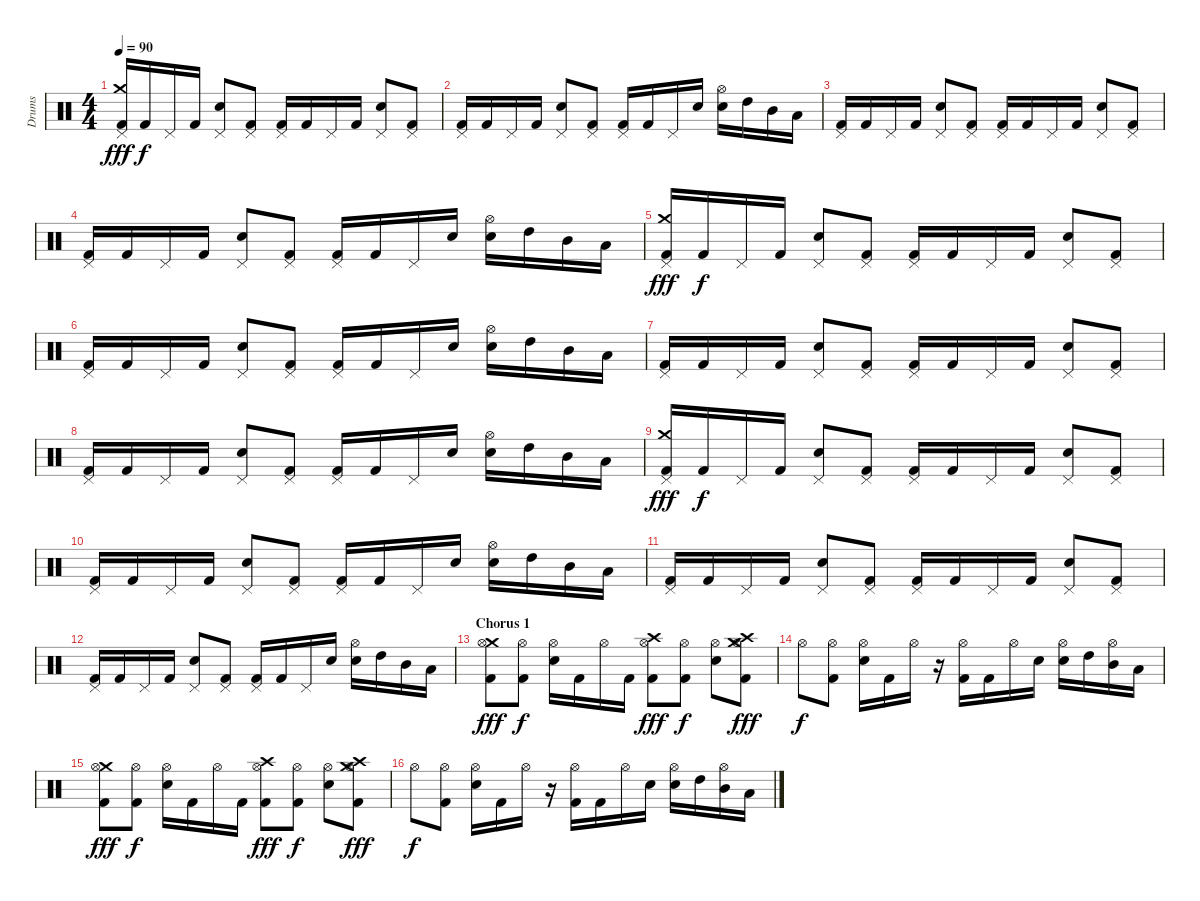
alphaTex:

\track ("Drums" "Drums") {instrument percussion}
\staff {score}
\articulation defaults
\ts (4 4)
\tempo 90
\clef neutral
\ks c
("Kick (hit) 2" "Crash medium (hit)" "Pedal Hi-Hat (hit)").16{dy fff} "Kick (hit) 2".16{dy f} "Pedal Hi-Hat (hit)".16 "Kick (hit) 2".16 ("Snare (hit) 2" "Pedal Hi-Hat (hit)").8 ("Kick (hit) 2" "Pedal Hi-Hat (hit)").8 ("Kick (hit) 2" "Pedal Hi-Hat (hit)").16 "Kick (hit) 2".16 "Pedal Hi-Hat (hit)".16 "Kick (hit) 2".16 ("Snare (hit) 2" "Pedal Hi-Hat (hit)").8 ("Kick (hit) 2" "Pedal Hi-Hat (hit)").8 |
("Kick (hit) 2" "Pedal Hi-Hat (hit)").16 "Kick (hit) 2".16 "Pedal Hi-Hat (hit)".16 "Kick (hit) 2".16 ("Snare (hit) 2" "Pedal Hi-Hat (hit)").8 ("Kick (hit) 2" "Pedal Hi-Hat (hit)").8 ("Kick (hit) 2" "Pedal Hi-Hat (hit)").16 "Kick (hit) 2".16 "Pedal Hi-Hat (hit)".16 "Snare (hit) 2".16 ("Snare (hit) 2" "Hi-Hat (open)").16 "High Tom (hit)".16 "Mid Tom (hit)".16 "Low Tom (hit)".16 |
("Kick (hit) 2" "Pedal Hi-Hat (hit)").16 "Kick (hit) 2".16 "Pedal Hi-Hat (hit)".16 "Kick (hit) 2".16 ("Snare (hit) 2" "Pedal Hi-Hat (hit)").8 ("Kick (hit) 2" "Pedal Hi-Hat (hit)").8 ("Kick (hit) 2" "Pedal Hi-Hat (hit)").16 "Kick (hit) 2".16 "Pedal Hi-Hat (hit)".16 "Kick (hit) 2".16 ("Snare (hit) 2" "Pedal Hi-Hat (hit)").8 ("Kick (hit) 2" "Pedal Hi-Hat (hit)").8 |
("Kick (hit) 2" "Pedal Hi-Hat (hit)").16 "Kick (hit) 2".16 "Pedal Hi-Hat (hit)".16 "Kick (hit) 2".16 ("Snare (hit) 2" "Pedal Hi-Hat (hit)").8 ("Kick (hit) 2" "Pedal Hi-Hat (hit)").8 ("Kick (hit) 2" "Pedal Hi-Hat (hit)").16 "Kick (hit) 2".16 "Pedal Hi-Hat (hit)".16 "Snare (hit) 2".16 ("Snare (hit) 2" "Hi-Hat (open)").16 "High Tom (hit)".16 "Mid Tom (hit)".16 "Low Tom (hit)".16 |
("Kick (hit) 2" "Crash medium (hit)" "Pedal Hi-Hat (hit)").16{dy fff} "Kick (hit) 2".16{dy f} "Pedal Hi-Hat (hit)".16 "Kick (hit) 2".16 ("Snare (hit) 2" "Pedal Hi-Hat (hit)").8 ("Kick (hit) 2" "Pedal Hi-Hat (hit)").8 ("Kick (hit) 2" "Pedal Hi-Hat (hit)").16 "Kick (hit) 2".16 "Pedal Hi-Hat (hit)".16 "Kick (hit) 2".16 ("Snare (hit) 2" "Pedal Hi-Hat (hit)").8 ("Kick (hit) 2" "Pedal Hi-Hat (hit)").8 |
("Kick (hit) 2" "Pedal Hi-Hat (hit)").16 "Kick (hit) 2".16 "Pedal Hi-Hat (hit)".16 "Kick (hit) 2".16 ("Snare (hit) 2" "Pedal Hi-Hat (hit)").8 ("Kick (hit) 2" "Pedal Hi-Hat (hit)").8 ("Kick (hit) 2" "Pedal Hi-Hat (hit)").16 "Kick (hit) 2".16 "Pedal Hi-Hat (hit)".16 "Snare (hit) 2".16 ("Snare (hit) 2" "Hi-Hat (open)").16 "High Tom (hit)".16 "Mid Tom (hit)".16 "Low Tom (hit)".16 |
("Kick (hit) 2" "Pedal Hi-Hat (hit)").16 "Kick (hit) 2".16 "Pedal Hi-Hat (hit)".16 "Kick (hit) 2".16 ("Snare (hit) 2" "Pedal Hi-Hat (hit)").8 ("Kick (hit) 2" "Pedal Hi-Hat (hit)").8 ("Kick (hit) 2" "Pedal Hi-Hat (hit)").16 "Kick (hit) 2".16 "Pedal Hi-Hat (hit)".16 "Kick (hit) 2".16 ("Snare (hit) 2" "Pedal Hi-Hat (hit)").8 ("Kick (hit) 2" "Pedal Hi-Hat (hit)").8 |
("Kick (hit) 2" "Pedal Hi-Hat (hit)").16 "Kick (hit) 2".16 "Pedal Hi-Hat (hit)".16 "Kick (hit) 2".16 ("Snare (hit) 2" "Pedal Hi-Hat (hit)").8 ("Kick (hit) 2" "Pedal Hi-Hat (hit)").8 ("Kick (hit) 2" "Pedal Hi-Hat (hit)").16 "Kick (hit) 2".16 "Pedal Hi-Hat (hit)".16 "Snare (hit) 2".16 ("Snare (hit) 2" "Hi-Hat (open)").16 "High Tom (hit)".16 "Mid Tom (hit)".16 "Low Tom (hit)".16 |
("Kick (hit) 2" "Crash medium (hit)" "Pedal Hi-Hat (hit)").16{dy fff} "Kick (hit) 2".16{dy f} "Pedal Hi-Hat (hit)".16 "Kick (hit) 2".16 ("Snare (hit) 2" "Pedal Hi-Hat (hit)").8 ("Kick (hit) 2" "Pedal Hi-Hat (hit)").8 ("Kick (hit) 2" "Pedal Hi-Hat (hit)").16 "Kick (hit) 2".16 "Pedal Hi-Hat (hit)".16 "Kick (hit) 2".16 ("Snare (hit) 2" "Pedal Hi-Hat (hit)").8 ("Kick (hit) 2" "Pedal Hi-Hat (hit)").8 |
("Kick (hit) 2" "Pedal Hi-Hat (hit)").16 "Kick (hit) 2".16 "Pedal Hi-Hat (hit)".16 "Kick (hit) 2".16 ("Snare (hit) 2" "Pedal Hi-Hat (hit)").8 ("Kick (hit) 2" "Pedal Hi-Hat (hit)").8 ("Kick (hit) 2" "Pedal Hi-Hat (hit)").16 "Kick (hit) 2".16 "Pedal Hi-Hat (hit)".16 "Snare (hit) 2".16 ("Snare (hit) 2" "Hi-Hat (open)").16 "High Tom (hit)".16 "Mid Tom (hit)".16 "Low Tom (hit)".16 |
("Kick (hit) 2" "Pedal Hi-Hat (hit)").16 "Kick (hit) 2".16 "Pedal Hi-Hat (hit)".16 "Kick (hit) 2".16 ("Snare (hit) 2" "Pedal Hi-Hat (hit)").8 ("Kick (hit) 2" "Pedal Hi-Hat (hit)").8 ("Kick (hit) 2" "Pedal Hi-Hat (hit)").16 "Kick (hit) 2".16 "Pedal Hi-Hat (hit)".16 "Kick (hit) 2".16 ("Snare (hit) 2" "Pedal Hi-Hat (hit)").8 ("Kick (hit) 2" "Pedal Hi-Hat (hit)").8 |
("Kick (hit) 2" "Pedal Hi-Hat (hit)").16 "Kick (hit) 2".16 "Pedal Hi-Hat (hit)".16 "Kick (hit) 2".16 ("Snare (hit) 2" "Pedal Hi-Hat (hit)").8 ("Kick (hit) 2" "Pedal Hi-Hat (hit)").8 ("Kick (hit) 2" "Pedal Hi-Hat (hit)").16 "Kick (hit) 2".16 "Pedal Hi-Hat (hit)".16 "Snare (hit) 2".16 ("Snare (hit) 2" "Hi-Hat (open)").16 "High Tom (hit)".16 "Mid Tom (hit)".16 "Low Tom (hit)".16 |
\section ("" "Chorus 1")
("Kick (hit) 2" "Crash medium (hit)" "Hi-Hat (open)").8{dy fff} ("Kick (hit) 2" "Hi-Hat (open)").8{dy f} ("Snare (hit) 2" "Hi-Hat (open)").16 "Kick (hit) 2".16 "Hi-Hat (open)".16 "Kick (hit) 2".16 ("Kick (hit) 2" "Crash high (hit)" "Hi-Hat (open)").8{dy fff} ("Kick (hit) 2" "Hi-Hat (open)").8{dy f} ("Snare (hit) 2" "Hi-Hat (open)").8 ("Kick (hit) 2" "Crash medium (hit)" "Crash high (hit)" "Hi-Hat (open)").8{dy fff} |
"Hi-Hat (open)".8{dy f} ("Kick (hit) 2" "Hi-Hat (open)").8 ("Snare (hit) 2" "Hi-Hat (open)").16 "Kick (hit) 2".16 "Hi-Hat (open)".16 r.16 ("Kick (hit) 2" "Hi-Hat (open)").16 "Kick (hit) 2".16 "Hi-Hat (open)".16 "Snare (hit) 2".16 ("Snare (hit) 2" "Hi-Hat (open)").16 "High Tom (hit)".16 ("Mid Tom (hit)" "Hi-Hat (open)").16 "Low Tom (hit)".16 |
("Kick (hit) 2" "Crash medium (hit)" "Hi-Hat (open)").8{dy fff} ("Kick (hit) 2" "Hi-Hat (open)").8{dy f} ("Snare (hit) 2" "Hi-Hat (open)").16 "Kick (hit) 2".16 "Hi-Hat (open)".16 "Kick (hit) 2".16 ("Kick (hit) 2" "Crash high (hit)" "Hi-Hat (open)").8{dy fff} ("Kick (hit) 2" "Hi-Hat (open)").8{dy f} ("Snare (hit) 2" "Hi-Hat (open)").8 ("Kick (hit) 2" "Crash medium (hit)" "Crash high (hit)" "Hi-Hat (open)").8{dy fff} |
"Hi-Hat (open)".8{dy f} ("Kick (hit) 2" "Hi-Hat (open)").8 ("Snare (hit) 2" "Hi-Hat (open)").16 "Kick (hit) 2".16 "Hi-Hat (open)".16 r.16 ("Kick (hit) 2" "Hi-Hat (open)").16 "Kick (hit) 2".16 "Hi-Hat (open)".16 "Snare (hit) 2".16 ("Snare (hit) 2" "Hi-Hat (open)").16 "High Tom (hit)".16 ("Mid Tom (hit)" "Hi-Hat (open)").16 "Low Tom (hit)".16
